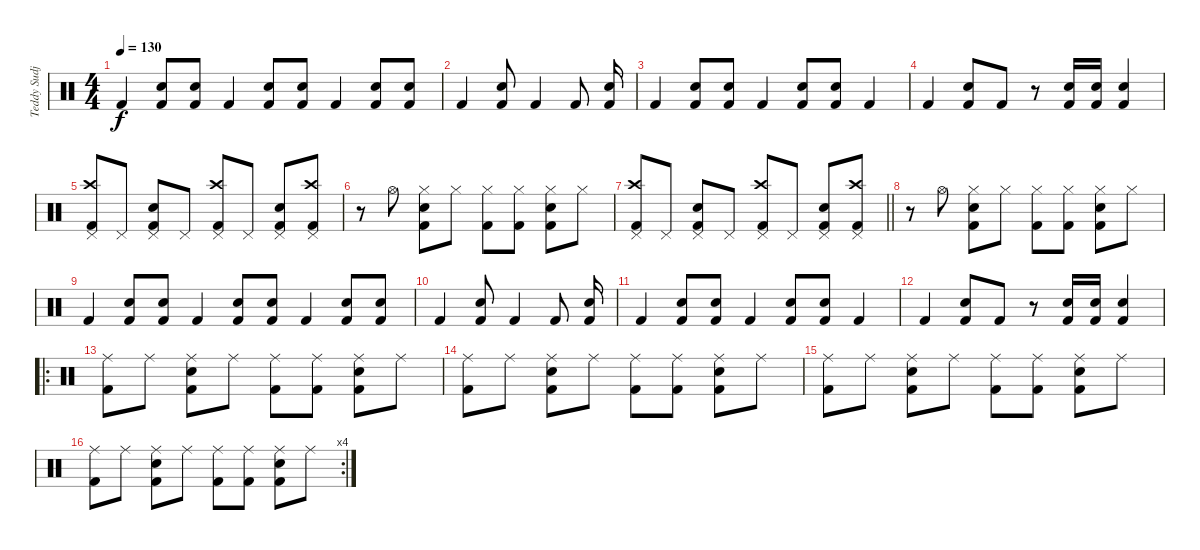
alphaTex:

\track ("Teddy Sudjaya (drum)" "Teddy Sudj") {instrument percussion}
\staff {score}
\articulation defaults
\ts (4 4)
\tempo 130
\clef neutral
\ks c "Kick (hit) 2".4{dy f}
("Snare (hit) 2" "Kick (hit) 2").8 ("Snare (hit) 2" "Kick (hit) 2").8 "Kick (hit) 2".4 ("Snare (hit) 2" "Kick (hit) 2").8 ("Snare (hit) 2" "Kick (hit) 2").8 "Kick (hit) 2".4 ("Snare (hit) 2" "Kick (hit) 2").8 ("Snare (hit) 2" "Kick (hit) 2").8 |
"Kick (hit) 2".4 ("Snare (hit) 2" "Kick (hit) 2").8 "Kick (hit) 2".4 "Kick (hit) 2".8 ("Snare (hit) 2" "Kick (hit) 2").16 |
"Kick (hit) 2".4 ("Snare (hit) 2" "Kick (hit) 2").8 ("Snare (hit) 2" "Kick (hit) 2").8 "Kick (hit) 2".4 ("Snare (hit) 2" "Kick (hit) 2").8 ("Snare (hit) 2" "Kick (hit) 2").8 "Kick (hit) 2".4 |
"Kick (hit) 2".4 ("Snare (hit) 2" "Kick (hit) 2").8 "Kick (hit) 2".8 r.8 ("Snare (hit) 2" "Kick (hit) 2").16 ("Snare (hit) 2" "Kick (hit) 2").16 ("Snare (hit) 2" "Kick (hit) 2").4 |
("Crash high (hit)" "Pedal Hi-Hat (hit)" "Kick (hit) 2").8 "Pedal Hi-Hat (hit)".8 ("Pedal Hi-Hat (hit)" "Snare (hit) 2" "Kick (hit) 2").8 "Pedal Hi-Hat (hit)".8 ("Crash high (hit)" "Pedal Hi-Hat (hit)" "Kick (hit) 2").8 "Pedal Hi-Hat (hit)".8 ("Pedal Hi-Hat (hit)" "Snare (hit) 2" "Kick (hit) 2").8 ("Crash high (hit)" "Pedal Hi-Hat (hit)" "Kick (hit) 2").8 |
r.8 "Hi-Hat (open)".8 ("Snare (hit) 2" "Hi-Hat (closed)" "Kick (hit) 2").8 "Hi-Hat (closed)".8 ("Hi-Hat (closed)" "Kick (hit) 2").8 ("Hi-Hat (closed)" "Kick (hit) 2").8 ("Snare (hit) 2" "Hi-Hat (closed)" "Kick (hit) 2").8 "Hi-Hat (closed)".8 |
\barLineRight lightlight
("Crash high (hit)" "Pedal Hi-Hat (hit)" "Kick (hit) 2").8 "Pedal Hi-Hat (hit)".8 ("Pedal Hi-Hat (hit)" "Snare (hit) 2" "Kick (hit) 2").8 "Pedal Hi-Hat (hit)".8 ("Crash high (hit)" "Pedal Hi-Hat (hit)" "Kick (hit) 2").8 "Pedal Hi-Hat (hit)".8 ("Pedal Hi-Hat (hit)" "Snare (hit) 2" "Kick (hit) 2").8 ("Crash high (hit)" "Pedal Hi-Hat (hit)" "Kick (hit) 2").8 |
r.8 "Hi-Hat (open)".8 ("Snare (hit) 2" "Hi-Hat (closed)" "Kick (hit) 2").8 "Hi-Hat (closed)".8 ("Hi-Hat (closed)" "Kick (hit) 2").8 ("Hi-Hat (closed)" "Kick (hit) 2").8 ("Snare (hit) 2" "Hi-Hat (closed)" "Kick (hit) 2").8 "Hi-Hat (closed)".8 |
"Kick (hit) 2".4 ("Snare (hit) 2" "Kick (hit) 2").8 ("Snare (hit) 2" "Kick (hit) 2").8 "Kick (hit) 2".4 ("Snare (hit) 2" "Kick (hit) 2").8 ("Snare (hit) 2" "Kick (hit) 2").8 "Kick (hit) 2".4 ("Snare (hit) 2" "Kick (hit) 2").8 ("Snare (hit) 2" "Kick (hit) 2").8 |
"Kick (hit) 2".4 ("Snare (hit) 2" "Kick (hit) 2").8 "Kick (hit) 2".4 "Kick (hit) 2".8 ("Snare (hit) 2" "Kick (hit) 2").16 |
"Kick (hit) 2".4 ("Snare (hit) 2" "Kick (hit) 2").8 ("Snare (hit) 2" "Kick (hit) 2").8 "Kick (hit) 2".4 ("Snare (hit) 2" "Kick (hit) 2").8 ("Snare (hit) 2" "Kick (hit) 2").8 "Kick (hit) 2".4 |
"Kick (hit) 2".4 ("Snare (hit) 2" "Kick (hit) 2").8 "Kick (hit) 2".8 r.8 ("Snare (hit) 2" "Kick (hit) 2").16 ("Snare (hit) 2" "Kick (hit) 2").16 ("Snare (hit) 2" "Kick (hit) 2").4 |
\ro
("Ride (middle)" "Kick (hit) 2").8 "Ride (middle)".8 ("Ride (middle)" "Snare (hit) 2" "Kick (hit) 2").8 "Ride (middle)".8 ("Ride (middle)" "Kick (hit) 2").8 ("Ride (middle)" "Kick (hit) 2").8 ("Ride (middle)" "Snare (hit) 2" "Kick (hit) 2").8 "Ride (middle)".8 |
("Ride (middle)" "Kick (hit) 2").8 "Ride (middle)".8 ("Ride (middle)" "Snare (hit) 2" "Kick (hit) 2").8 "Ride (middle)".8 ("Ride (middle)" "Kick (hit) 2").8 ("Ride (middle)" "Kick (hit) 2").8 ("Ride (middle)" "Snare (hit) 2" "Kick (hit) 2").8 "Ride (middle)".8 |
("Ride (middle)" "Kick (hit) 2").8 "Ride (middle)".8 ("Ride (middle)" "Snare (hit) 2" "Kick (hit) 2").8 "Ride (middle)".8 ("Ride (middle)" "Kick (hit) 2").8 ("Ride (middle)" "Kick (hit) 2").8 ("Ride (middle)" "Snare (hit) 2" "Kick (hit) 2").8 "Ride (middle)".8 |
\rc 4
("Ride (middle)" "Kick (hit) 2").8 "Ride (middle)".8 ("Ride (middle)" "Snare (hit) 2" "Kick (hit) 2").8 "Ride (middle)".8 ("Ride (middle)" "Kick (hit) 2").8 ("Ride (middle)" "Kick (hit) 2").8 ("Ride (middle)" "Snare (hit) 2" "Kick (hit) 2").8 "Ride (middle)".8
